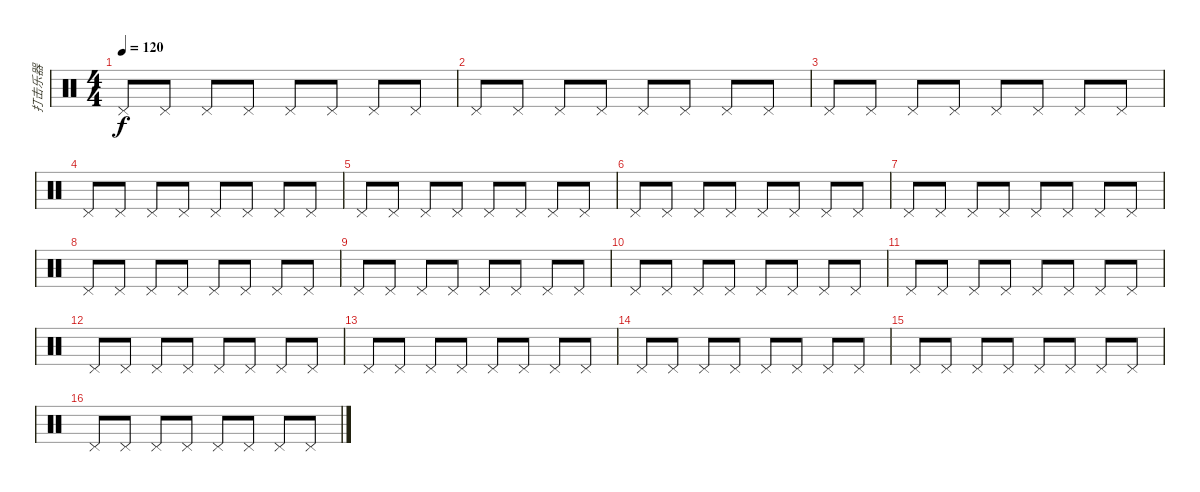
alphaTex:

\track ("打击乐器" "打击乐器") {instrument percussion}
\staff {score}
\articulation defaults
\ts (4 4)
\tempo 120
\clef neutral
\ks c "Pedal Hi-Hat (hit)".8{dy f} "Pedal Hi-Hat (hit)".8 "Pedal Hi-Hat (hit)".8 "Pedal Hi-Hat (hit)".8 "Pedal Hi-Hat (hit)".8 "Pedal Hi-Hat (hit)".8 "Pedal Hi-Hat (hit)".8 "Pedal Hi-Hat (hit)".8
|
"Pedal Hi-Hat (hit)".8 "Pedal Hi-Hat (hit)".8 "Pedal Hi-Hat (hit)".8 "Pedal Hi-Hat (hit)".8 "Pedal Hi-Hat (hit)".8 "Pedal Hi-Hat (hit)".8 "Pedal Hi-Hat (hit)".8 "Pedal Hi-Hat (hit)".8 |
"Pedal Hi-Hat (hit)".8 "Pedal Hi-Hat (hit)".8 "Pedal Hi-Hat (hit)".8 "Pedal Hi-Hat (hit)".8 "Pedal Hi-Hat (hit)".8 "Pedal Hi-Hat (hit)".8 "Pedal Hi-Hat (hit)".8 "Pedal Hi-Hat (hit)".8 |
"Pedal Hi-Hat (hit)".8 "Pedal Hi-Hat (hit)".8 "Pedal Hi-Hat (hit)".8 "Pedal Hi-Hat (hit)".8 "Pedal Hi-Hat (hit)".8 "Pedal Hi-Hat (hit)".8 "Pedal Hi-Hat (hit)".8 "Pedal Hi-Hat (hit)".8 |
"Pedal Hi-Hat (hit)".8 "Pedal Hi-Hat (hit)".8 "Pedal Hi-Hat (hit)".8 "Pedal Hi-Hat (hit)".8 "Pedal Hi-Hat (hit)".8 "Pedal Hi-Hat (hit)".8 "Pedal Hi-Hat (hit)".8 "Pedal Hi-Hat (hit)".8 |
"Pedal Hi-Hat (hit)".8 "Pedal Hi-Hat (hit)".8 "Pedal Hi-Hat (hit)".8 "Pedal Hi-Hat (hit)".8 "Pedal Hi-Hat (hit)".8 "Pedal Hi-Hat (hit)".8 "Pedal Hi-Hat (hit)".8 "Pedal Hi-Hat (hit)".8 |
"Pedal Hi-Hat (hit)".8 "Pedal Hi-Hat (hit)".8 "Pedal Hi-Hat (hit)".8 "Pedal Hi-Hat (hit)".8 "Pedal Hi-Hat (hit)".8 "Pedal Hi-Hat (hit)".8 "Pedal Hi-Hat (hit)".8 "Pedal Hi-Hat (hit)".8 |
"Pedal Hi-Hat (hit)".8 "Pedal Hi-Hat (hit)".8 "Pedal Hi-Hat (hit)".8 "Pedal Hi-Hat (hit)".8 "Pedal Hi-Hat (hit)".8 "Pedal Hi-Hat (hit)".8 "Pedal Hi-Hat (hit)".8 "Pedal Hi-Hat (hit)".8 |
"Pedal Hi-Hat (hit)".8 "Pedal Hi-Hat (hit)".8 "Pedal Hi-Hat (hit)".8 "Pedal Hi-Hat (hit)".8 "Pedal Hi-Hat (hit)".8 "Pedal Hi-Hat (hit)".8 "Pedal Hi-Hat (hit)".8 "Pedal Hi-Hat (hit)".8 |
"Pedal Hi-Hat (hit)".8 "Pedal Hi-Hat (hit)".8 "Pedal Hi-Hat (hit)".8 "Pedal Hi-Hat (hit)".8 "Pedal Hi-Hat (hit)".8 "Pedal Hi-Hat (hit)".8 "Pedal Hi-Hat (hit)".8 "Pedal Hi-Hat (hit)".8 |
"Pedal Hi-Hat (hit)".8 "Pedal Hi-Hat (hit)".8 "Pedal Hi-Hat (hit)".8 "Pedal Hi-Hat (hit)".8 "Pedal Hi-Hat (hit)".8 "Pedal Hi-Hat (hit)".8 "Pedal Hi-Hat (hit)".8 "Pedal Hi-Hat (hit)".8 |
"Pedal Hi-Hat (hit)".8 "Pedal Hi-Hat (hit)".8 "Pedal Hi-Hat (hit)".8 "Pedal Hi-Hat (hit)".8 "Pedal Hi-Hat (hit)".8 "Pedal Hi-Hat (hit)".8 "Pedal Hi-Hat (hit)".8 "Pedal Hi-Hat (hit)".8 |
"Pedal Hi-Hat (hit)".8 "Pedal Hi-Hat (hit)".8 "Pedal Hi-Hat (hit)".8 "Pedal Hi-Hat (hit)".8 "Pedal Hi-Hat (hit)".8 "Pedal Hi-Hat (hit)".8 "Pedal Hi-Hat (hit)".8 "Pedal Hi-Hat (hit)".8 |
"Pedal Hi-Hat (hit)".8 "Pedal Hi-Hat (hit)".8 "Pedal Hi-Hat (hit)".8 "Pedal Hi-Hat (hit)".8 "Pedal Hi-Hat (hit)".8 "Pedal Hi-Hat (hit)".8 "Pedal Hi-Hat (hit)".8 "Pedal Hi-Hat (hit)".8 |
"Pedal Hi-Hat (hit)".8 "Pedal Hi-Hat (hit)".8 "Pedal Hi-Hat (hit)".8 "Pedal Hi-Hat (hit)".8 "Pedal Hi-Hat (hit)".8 "Pedal Hi-Hat (hit)".8 "Pedal Hi-Hat (hit)".8 "Pedal Hi-Hat (hit)".8 |
"Pedal Hi-Hat (hit)".8 "Pedal Hi-Hat (hit)".8 "Pedal Hi-Hat (hit)".8 "Pedal Hi-Hat (hit)".8 "Pedal Hi-Hat (hit)".8 "Pedal Hi-Hat (hit)".8 "Pedal Hi-Hat (hit)".8 "Pedal Hi-Hat (hit)".8
